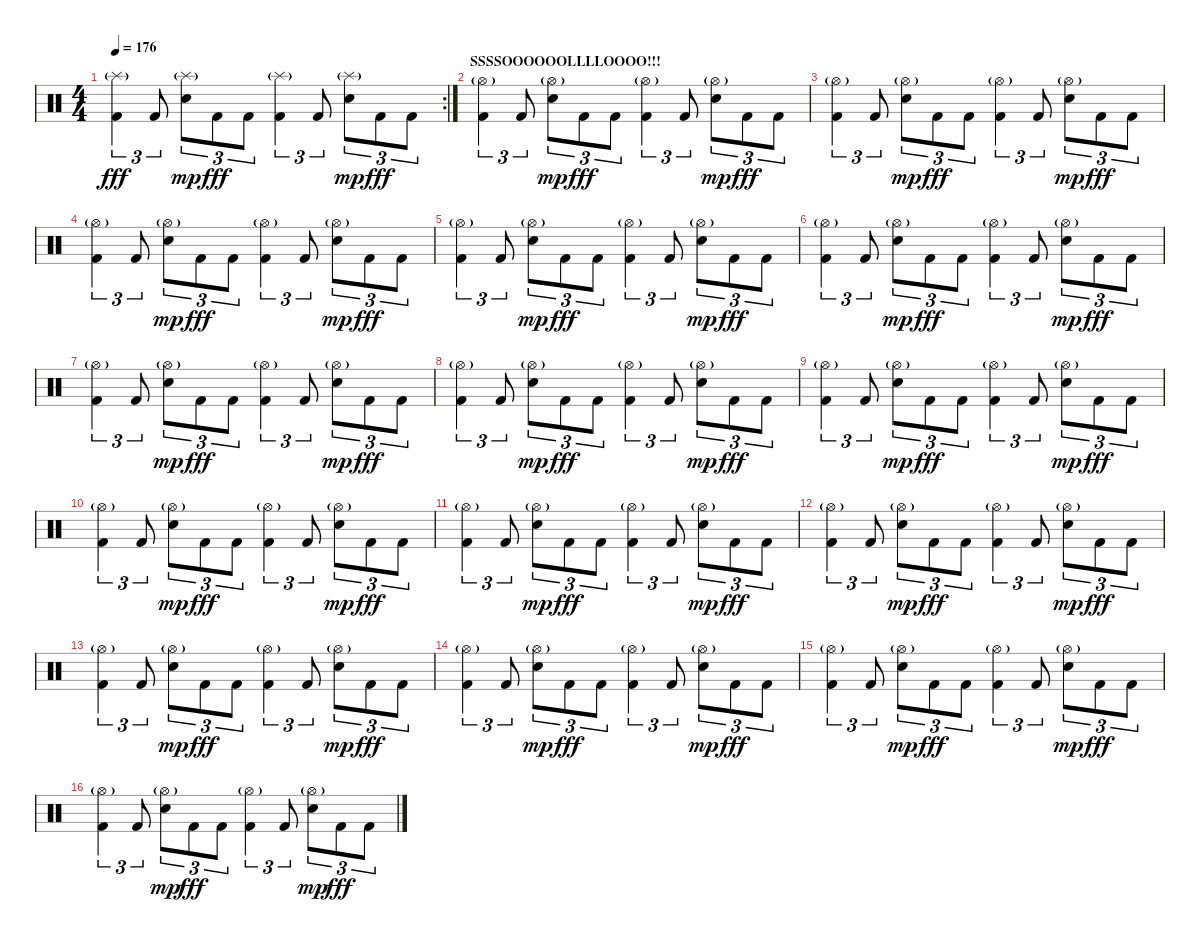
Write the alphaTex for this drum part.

\track "" {instrument percussion}
\staff {score}
\articulation defaults
\rc 2
\ts (4 4)
\tempo 176
\clef neutral
\ks c
("Splash (hit)"{g} "Kick (hit) 2").4{tu (3 2) dy fff} "Kick (hit) 2".8{tu (3 2)} ("Splash (hit)"{g} "Snare (hit) 2").8{tu (3 2) dy mp} "Kick (hit) 2".8{tu (3 2) dy fff} "Kick (hit) 2".8{tu (3 2)} ("Splash (hit)"{g} "Kick (hit) 2").4{tu (3 2)} "Kick (hit) 2".8{tu (3 2)} ("Splash (hit)"{g} "Snare (hit) 2").8{tu (3 2) dy mp} "Kick (hit) 2".8{tu (3 2) dy fff} "Kick (hit) 2".8{tu (3 2)} |
\section ("" "SSSSOOOOOOLLLLOOOO!!!")
("Hi-Hat (open)"{g} "Kick (hit) 2").4{tu (3 2)} "Kick (hit) 2".8{tu (3 2)} ("Hi-Hat (open)"{g} "Snare (hit) 2").8{tu (3 2) dy mp} "Kick (hit) 2".8{tu (3 2) dy fff} "Kick (hit) 2".8{tu (3 2)} ("Hi-Hat (open)"{g} "Kick (hit) 2").4{tu (3 2)} "Kick (hit) 2".8{tu (3 2)} ("Hi-Hat (open)"{g} "Snare (hit) 2").8{tu (3 2) dy mp} "Kick (hit) 2".8{tu (3 2) dy fff} "Kick (hit) 2".8{tu (3 2)} |
("Hi-Hat (open)"{g} "Kick (hit) 2").4{tu (3 2)} "Kick (hit) 2".8{tu (3 2)} ("Hi-Hat (open)"{g} "Snare (hit) 2").8{tu (3 2) dy mp} "Kick (hit) 2".8{tu (3 2) dy fff} "Kick (hit) 2".8{tu (3 2)} ("Hi-Hat (open)"{g} "Kick (hit) 2").4{tu (3 2)} "Kick (hit) 2".8{tu (3 2)} ("Hi-Hat (open)"{g} "Snare (hit) 2").8{tu (3 2) dy mp} "Kick (hit) 2".8{tu (3 2) dy fff} "Kick (hit) 2".8{tu (3 2)} |
("Hi-Hat (open)"{g} "Kick (hit) 2").4{tu (3 2)} "Kick (hit) 2".8{tu (3 2)} ("Hi-Hat (open)"{g} "Snare (hit) 2").8{tu (3 2) dy mp} "Kick (hit) 2".8{tu (3 2) dy fff} "Kick (hit) 2".8{tu (3 2)} ("Hi-Hat (open)"{g} "Kick (hit) 2").4{tu (3 2)} "Kick (hit) 2".8{tu (3 2)} ("Hi-Hat (open)"{g} "Snare (hit) 2").8{tu (3 2) dy mp} "Kick (hit) 2".8{tu (3 2) dy fff} "Kick (hit) 2".8{tu (3 2)} |
("Hi-Hat (open)"{g} "Kick (hit) 2").4{tu (3 2)} "Kick (hit) 2".8{tu (3 2)} ("Hi-Hat (open)"{g} "Snare (hit) 2").8{tu (3 2) dy mp} "Kick (hit) 2".8{tu (3 2) dy fff} "Kick (hit) 2".8{tu (3 2)} ("Hi-Hat (open)"{g} "Kick (hit) 2").4{tu (3 2)} "Kick (hit) 2".8{tu (3 2)} ("Hi-Hat (open)"{g} "Snare (hit) 2").8{tu (3 2) dy mp} "Kick (hit) 2".8{tu (3 2) dy fff} "Kick (hit) 2".8{tu (3 2)} |
("Hi-Hat (open)"{g} "Kick (hit) 2").4{tu (3 2)} "Kick (hit) 2".8{tu (3 2)} ("Hi-Hat (open)"{g} "Snare (hit) 2").8{tu (3 2) dy mp} "Kick (hit) 2".8{tu (3 2) dy fff} "Kick (hit) 2".8{tu (3 2)} ("Hi-Hat (open)"{g} "Kick (hit) 2").4{tu (3 2)} "Kick (hit) 2".8{tu (3 2)} ("Hi-Hat (open)"{g} "Snare (hit) 2").8{tu (3 2) dy mp} "Kick (hit) 2".8{tu (3 2) dy fff} "Kick (hit) 2".8{tu (3 2)} |
("Hi-Hat (open)"{g} "Kick (hit) 2").4{tu (3 2)} "Kick (hit) 2".8{tu (3 2)} ("Hi-Hat (open)"{g} "Snare (hit) 2").8{tu (3 2) dy mp} "Kick (hit) 2".8{tu (3 2) dy fff} "Kick (hit) 2".8{tu (3 2)} ("Hi-Hat (open)"{g} "Kick (hit) 2").4{tu (3 2)} "Kick (hit) 2".8{tu (3 2)} ("Hi-Hat (open)"{g} "Snare (hit) 2").8{tu (3 2) dy mp} "Kick (hit) 2".8{tu (3 2) dy fff} "Kick (hit) 2".8{tu (3 2)} |
("Hi-Hat (open)"{g} "Kick (hit) 2").4{tu (3 2)} "Kick (hit) 2".8{tu (3 2)} ("Hi-Hat (open)"{g} "Snare (hit) 2").8{tu (3 2) dy mp} "Kick (hit) 2".8{tu (3 2) dy fff} "Kick (hit) 2".8{tu (3 2)} ("Hi-Hat (open)"{g} "Kick (hit) 2").4{tu (3 2)} "Kick (hit) 2".8{tu (3 2)} ("Hi-Hat (open)"{g} "Snare (hit) 2").8{tu (3 2) dy mp} "Kick (hit) 2".8{tu (3 2) dy fff} "Kick (hit) 2".8{tu (3 2)} |
("Hi-Hat (open)"{g} "Kick (hit) 2").4{tu (3 2)} "Kick (hit) 2".8{tu (3 2)} ("Hi-Hat (open)"{g} "Snare (hit) 2").8{tu (3 2) dy mp} "Kick (hit) 2".8{tu (3 2) dy fff} "Kick (hit) 2".8{tu (3 2)} ("Hi-Hat (open)"{g} "Kick (hit) 2").4{tu (3 2)} "Kick (hit) 2".8{tu (3 2)} ("Hi-Hat (open)"{g} "Snare (hit) 2").8{tu (3 2) dy mp} "Kick (hit) 2".8{tu (3 2) dy fff} "Kick (hit) 2".8{tu (3 2)} |
("Hi-Hat (open)"{g} "Kick (hit) 2").4{tu (3 2)} "Kick (hit) 2".8{tu (3 2)} ("Hi-Hat (open)"{g} "Snare (hit) 2").8{tu (3 2) dy mp} "Kick (hit) 2".8{tu (3 2) dy fff} "Kick (hit) 2".8{tu (3 2)} ("Hi-Hat (open)"{g} "Kick (hit) 2").4{tu (3 2)} "Kick (hit) 2".8{tu (3 2)} ("Hi-Hat (open)"{g} "Snare (hit) 2").8{tu (3 2) dy mp} "Kick (hit) 2".8{tu (3 2) dy fff} "Kick (hit) 2".8{tu (3 2)} |
("Hi-Hat (open)"{g} "Kick (hit) 2").4{tu (3 2)} "Kick (hit) 2".8{tu (3 2)} ("Hi-Hat (open)"{g} "Snare (hit) 2").8{tu (3 2) dy mp} "Kick (hit) 2".8{tu (3 2) dy fff} "Kick (hit) 2".8{tu (3 2)} ("Hi-Hat (open)"{g} "Kick (hit) 2").4{tu (3 2)} "Kick (hit) 2".8{tu (3 2)} ("Hi-Hat (open)"{g} "Snare (hit) 2").8{tu (3 2) dy mp} "Kick (hit) 2".8{tu (3 2) dy fff} "Kick (hit) 2".8{tu (3 2)} |
("Hi-Hat (open)"{g} "Kick (hit) 2").4{tu (3 2)} "Kick (hit) 2".8{tu (3 2)} ("Hi-Hat (open)"{g} "Snare (hit) 2").8{tu (3 2) dy mp} "Kick (hit) 2".8{tu (3 2) dy fff} "Kick (hit) 2".8{tu (3 2)} ("Hi-Hat (open)"{g} "Kick (hit) 2").4{tu (3 2)} "Kick (hit) 2".8{tu (3 2)} ("Hi-Hat (open)"{g} "Snare (hit) 2").8{tu (3 2) dy mp} "Kick (hit) 2".8{tu (3 2) dy fff} "Kick (hit) 2".8{tu (3 2)} |
("Hi-Hat (open)"{g} "Kick (hit) 2").4{tu (3 2)} "Kick (hit) 2".8{tu (3 2)} ("Hi-Hat (open)"{g} "Snare (hit) 2").8{tu (3 2) dy mp} "Kick (hit) 2".8{tu (3 2) dy fff} "Kick (hit) 2".8{tu (3 2)} ("Hi-Hat (open)"{g} "Kick (hit) 2").4{tu (3 2)} "Kick (hit) 2".8{tu (3 2)} ("Hi-Hat (open)"{g} "Snare (hit) 2").8{tu (3 2) dy mp} "Kick (hit) 2".8{tu (3 2) dy fff} "Kick (hit) 2".8{tu (3 2)} |
("Hi-Hat (open)"{g} "Kick (hit) 2").4{tu (3 2)} "Kick (hit) 2".8{tu (3 2)} ("Hi-Hat (open)"{g} "Snare (hit) 2").8{tu (3 2) dy mp} "Kick (hit) 2".8{tu (3 2) dy fff} "Kick (hit) 2".8{tu (3 2)} ("Hi-Hat (open)"{g} "Kick (hit) 2").4{tu (3 2)} "Kick (hit) 2".8{tu (3 2)} ("Hi-Hat (open)"{g} "Snare (hit) 2").8{tu (3 2) dy mp} "Kick (hit) 2".8{tu (3 2) dy fff} "Kick (hit) 2".8{tu (3 2)} |
("Hi-Hat (open)"{g} "Kick (hit) 2").4{tu (3 2)} "Kick (hit) 2".8{tu (3 2)} ("Hi-Hat (open)"{g} "Snare (hit) 2").8{tu (3 2) dy mp} "Kick (hit) 2".8{tu (3 2) dy fff} "Kick (hit) 2".8{tu (3 2)} ("Hi-Hat (open)"{g} "Kick (hit) 2").4{tu (3 2)} "Kick (hit) 2".8{tu (3 2)} ("Hi-Hat (open)"{g} "Snare (hit) 2").8{tu (3 2) dy mp} "Kick (hit) 2".8{tu (3 2) dy fff} "Kick (hit) 2".8{tu (3 2)} |
("Hi-Hat (open)"{g} "Kick (hit) 2").4{tu (3 2)} "Kick (hit) 2".8{tu (3 2)} ("Hi-Hat (open)"{g} "Snare (hit) 2").8{tu (3 2) dy mp} "Kick (hit) 2".8{tu (3 2) dy fff} "Kick (hit) 2".8{tu (3 2)} ("Hi-Hat (open)"{g} "Kick (hit) 2").4{tu (3 2)} "Kick (hit) 2".8{tu (3 2)} ("Hi-Hat (open)"{g} "Snare (hit) 2").8{tu (3 2) dy mp} "Kick (hit) 2".8{tu (3 2) dy fff} "Kick (hit) 2".8{tu (3 2)}
